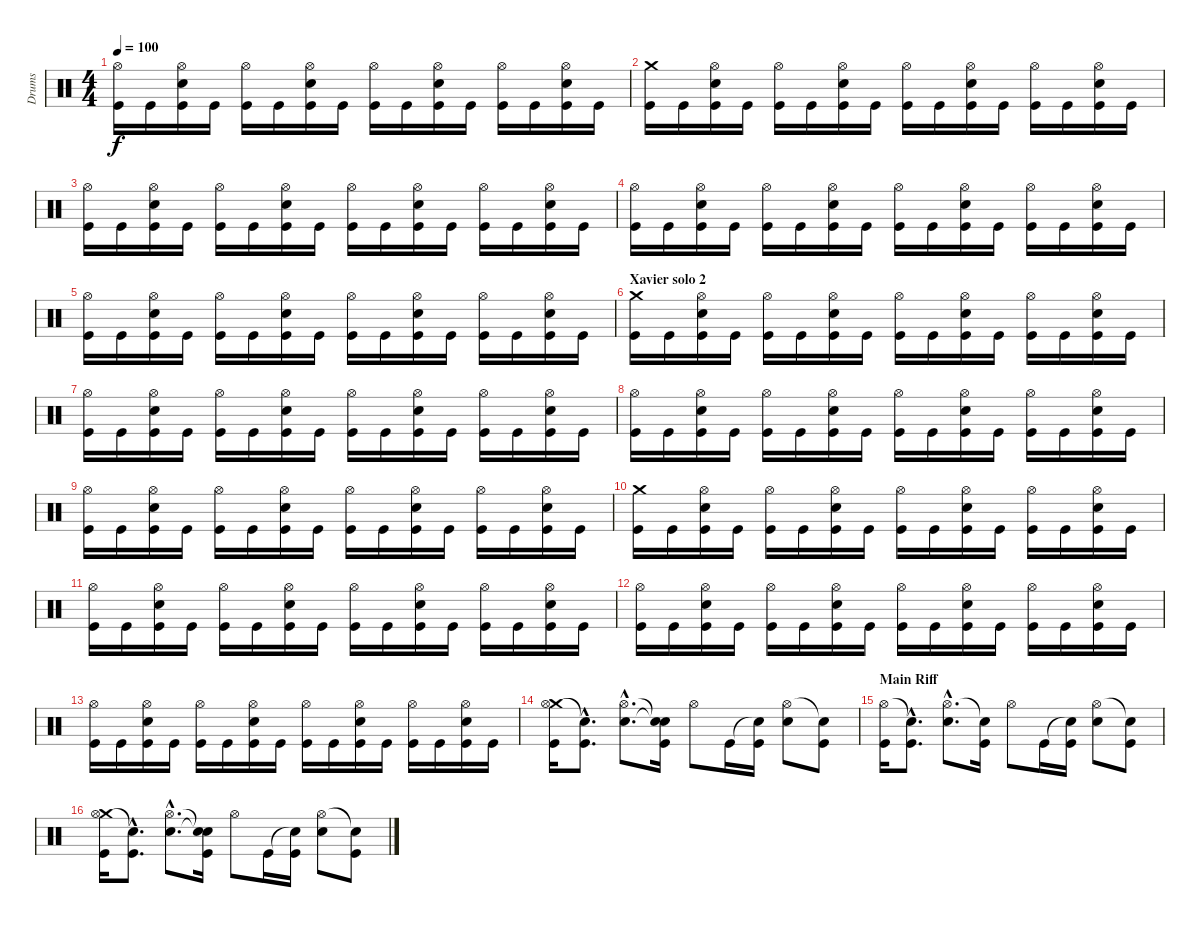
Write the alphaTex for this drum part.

\track ("Drums" "Drums") {instrument percussion}
\staff {score}
\articulation defaults
\ts (4 4)
\tempo 100
\clef neutral
\ks c
("Hi-Hat (open)" "Kick (hit)").16{dy f} "Kick (hit)".16 ("Hi-Hat (open)" "Electric Snare (hit)" "Kick (hit)").16 "Kick (hit)".16 ("Hi-Hat (open)" "Kick (hit)").16 "Kick (hit)".16 ("Hi-Hat (open)" "Electric Snare (hit)" "Kick (hit)").16 "Kick (hit)".16 ("Hi-Hat (open)" "Kick (hit)").16 "Kick (hit)".16 ("Hi-Hat (open)" "Electric Snare (hit)" "Kick (hit)").16 "Kick (hit)".16 ("Hi-Hat (open)" "Kick (hit)").16 "Kick (hit)".16 ("Hi-Hat (open)" "Electric Snare (hit)" "Kick (hit)").16 "Kick (hit)".16 |
("Crash medium (hit)" "Kick (hit)").16 "Kick (hit)".16 ("Hi-Hat (open)" "Electric Snare (hit)" "Kick (hit)").16 "Kick (hit)".16 ("Hi-Hat (open)" "Kick (hit)").16 "Kick (hit)".16 ("Hi-Hat (open)" "Electric Snare (hit)" "Kick (hit)").16 "Kick (hit)".16 ("Hi-Hat (open)" "Kick (hit)").16 "Kick (hit)".16 ("Hi-Hat (open)" "Electric Snare (hit)" "Kick (hit)").16 "Kick (hit)".16 ("Hi-Hat (open)" "Kick (hit)").16 "Kick (hit)".16 ("Hi-Hat (open)" "Electric Snare (hit)" "Kick (hit)").16 "Kick (hit)".16 |
("Hi-Hat (open)" "Kick (hit)").16 "Kick (hit)".16 ("Hi-Hat (open)" "Electric Snare (hit)" "Kick (hit)").16 "Kick (hit)".16 ("Hi-Hat (open)" "Kick (hit)").16 "Kick (hit)".16 ("Hi-Hat (open)" "Electric Snare (hit)" "Kick (hit)").16 "Kick (hit)".16 ("Hi-Hat (open)" "Kick (hit)").16 "Kick (hit)".16 ("Hi-Hat (open)" "Electric Snare (hit)" "Kick (hit)").16 "Kick (hit)".16 ("Hi-Hat (open)" "Kick (hit)").16 "Kick (hit)".16 ("Hi-Hat (open)" "Electric Snare (hit)" "Kick (hit)").16 "Kick (hit)".16 |
("Hi-Hat (open)" "Kick (hit)").16 "Kick (hit)".16 ("Hi-Hat (open)" "Electric Snare (hit)" "Kick (hit)").16 "Kick (hit)".16 ("Hi-Hat (open)" "Kick (hit)").16 "Kick (hit)".16 ("Hi-Hat (open)" "Electric Snare (hit)" "Kick (hit)").16 "Kick (hit)".16 ("Hi-Hat (open)" "Kick (hit)").16 "Kick (hit)".16 ("Hi-Hat (open)" "Electric Snare (hit)" "Kick (hit)").16 "Kick (hit)".16 ("Hi-Hat (open)" "Kick (hit)").16 "Kick (hit)".16 ("Hi-Hat (open)" "Electric Snare (hit)" "Kick (hit)").16 "Kick (hit)".16 |
("Hi-Hat (open)" "Kick (hit)").16 "Kick (hit)".16 ("Hi-Hat (open)" "Electric Snare (hit)" "Kick (hit)").16 "Kick (hit)".16 ("Hi-Hat (open)" "Kick (hit)").16 "Kick (hit)".16 ("Hi-Hat (open)" "Electric Snare (hit)" "Kick (hit)").16 "Kick (hit)".16 ("Hi-Hat (open)" "Kick (hit)").16 "Kick (hit)".16 ("Hi-Hat (open)" "Electric Snare (hit)" "Kick (hit)").16 "Kick (hit)".16 ("Hi-Hat (open)" "Kick (hit)").16 "Kick (hit)".16 ("Hi-Hat (open)" "Electric Snare (hit)" "Kick (hit)").16 "Kick (hit)".16 |
\section ("" "Xavier solo 2")
("Crash medium (hit)" "Kick (hit)").16 "Kick (hit)".16 ("Hi-Hat (open)" "Electric Snare (hit)" "Kick (hit)").16 "Kick (hit)".16 ("Hi-Hat (open)" "Kick (hit)").16 "Kick (hit)".16 ("Hi-Hat (open)" "Electric Snare (hit)" "Kick (hit)").16 "Kick (hit)".16 ("Hi-Hat (open)" "Kick (hit)").16 "Kick (hit)".16 ("Hi-Hat (open)" "Electric Snare (hit)" "Kick (hit)").16 "Kick (hit)".16 ("Hi-Hat (open)" "Kick (hit)").16 "Kick (hit)".16 ("Hi-Hat (open)" "Electric Snare (hit)" "Kick (hit)").16 "Kick (hit)".16 |
("Hi-Hat (open)" "Kick (hit)").16 "Kick (hit)".16 ("Hi-Hat (open)" "Electric Snare (hit)" "Kick (hit)").16 "Kick (hit)".16 ("Hi-Hat (open)" "Kick (hit)").16 "Kick (hit)".16 ("Hi-Hat (open)" "Electric Snare (hit)" "Kick (hit)").16 "Kick (hit)".16 ("Hi-Hat (open)" "Kick (hit)").16 "Kick (hit)".16 ("Hi-Hat (open)" "Electric Snare (hit)" "Kick (hit)").16 "Kick (hit)".16 ("Hi-Hat (open)" "Kick (hit)").16 "Kick (hit)".16 ("Hi-Hat (open)" "Electric Snare (hit)" "Kick (hit)").16 "Kick (hit)".16 |
("Hi-Hat (open)" "Kick (hit)").16 "Kick (hit)".16 ("Hi-Hat (open)" "Electric Snare (hit)" "Kick (hit)").16 "Kick (hit)".16 ("Hi-Hat (open)" "Kick (hit)").16 "Kick (hit)".16 ("Hi-Hat (open)" "Electric Snare (hit)" "Kick (hit)").16 "Kick (hit)".16 ("Hi-Hat (open)" "Kick (hit)").16 "Kick (hit)".16 ("Hi-Hat (open)" "Electric Snare (hit)" "Kick (hit)").16 "Kick (hit)".16 ("Hi-Hat (open)" "Kick (hit)").16 "Kick (hit)".16 ("Hi-Hat (open)" "Electric Snare (hit)" "Kick (hit)").16 "Kick (hit)".16 |
("Hi-Hat (open)" "Kick (hit)").16 "Kick (hit)".16 ("Hi-Hat (open)" "Electric Snare (hit)" "Kick (hit)").16 "Kick (hit)".16 ("Hi-Hat (open)" "Kick (hit)").16 "Kick (hit)".16 ("Hi-Hat (open)" "Electric Snare (hit)" "Kick (hit)").16 "Kick (hit)".16 ("Hi-Hat (open)" "Kick (hit)").16 "Kick (hit)".16 ("Hi-Hat (open)" "Electric Snare (hit)" "Kick (hit)").16 "Kick (hit)".16 ("Hi-Hat (open)" "Kick (hit)").16 "Kick (hit)".16 ("Hi-Hat (open)" "Electric Snare (hit)" "Kick (hit)").16 "Kick (hit)".16 |
("Crash medium (hit)" "Kick (hit)").16 "Kick (hit)".16 ("Hi-Hat (open)" "Electric Snare (hit)" "Kick (hit)").16 "Kick (hit)".16 ("Hi-Hat (open)" "Kick (hit)").16 "Kick (hit)".16 ("Hi-Hat (open)" "Electric Snare (hit)" "Kick (hit)").16 "Kick (hit)".16 ("Hi-Hat (open)" "Kick (hit)").16 "Kick (hit)".16 ("Hi-Hat (open)" "Electric Snare (hit)" "Kick (hit)").16 "Kick (hit)".16 ("Hi-Hat (open)" "Kick (hit)").16 "Kick (hit)".16 ("Hi-Hat (open)" "Electric Snare (hit)" "Kick (hit)").16 "Kick (hit)".16 |
("Hi-Hat (open)" "Kick (hit)").16 "Kick (hit)".16 ("Hi-Hat (open)" "Electric Snare (hit)" "Kick (hit)").16 "Kick (hit)".16 ("Hi-Hat (open)" "Kick (hit)").16 "Kick (hit)".16 ("Hi-Hat (open)" "Electric Snare (hit)" "Kick (hit)").16 "Kick (hit)".16 ("Hi-Hat (open)" "Kick (hit)").16 "Kick (hit)".16 ("Hi-Hat (open)" "Electric Snare (hit)" "Kick (hit)").16 "Kick (hit)".16 ("Hi-Hat (open)" "Kick (hit)").16 "Kick (hit)".16 ("Hi-Hat (open)" "Electric Snare (hit)" "Kick (hit)").16 "Kick (hit)".16 |
("Hi-Hat (open)" "Kick (hit)").16 "Kick (hit)".16 ("Hi-Hat (open)" "Electric Snare (hit)" "Kick (hit)").16 "Kick (hit)".16 ("Hi-Hat (open)" "Kick (hit)").16 "Kick (hit)".16 ("Hi-Hat (open)" "Electric Snare (hit)" "Kick (hit)").16 "Kick (hit)".16 ("Hi-Hat (open)" "Kick (hit)").16 "Kick (hit)".16 ("Hi-Hat (open)" "Electric Snare (hit)" "Kick (hit)").16 "Kick (hit)".16 ("Hi-Hat (open)" "Kick (hit)").16 "Kick (hit)".16 ("Hi-Hat (open)" "Electric Snare (hit)" "Kick (hit)").16 "Kick (hit)".16 |
("Hi-Hat (open)" "Kick (hit)").16 "Kick (hit)".16 ("Hi-Hat (open)" "Electric Snare (hit)" "Kick (hit)").16 "Kick (hit)".16 ("Hi-Hat (open)" "Kick (hit)").16 "Kick (hit)".16 ("Hi-Hat (open)" "Electric Snare (hit)" "Kick (hit)").16 "Kick (hit)".16 ("Hi-Hat (open)" "Kick (hit)").16 "Kick (hit)".16 ("Hi-Hat (open)" "Electric Snare (hit)" "Kick (hit)").16 "Kick (hit)".16 ("Hi-Hat (open)" "Kick (hit)").16 "Kick (hit)".16 ("Hi-Hat (open)" "Electric Snare (hit)" "Kick (hit)").16 "Kick (hit)".16 |
\section ("" "")
("Crash medium (hit)" "Hi-Hat (open)" "Kick (hit)").16 ("Snare (hit)"{hac t} "Kick (hit)"{hac}).8{d} ("Hi-Hat (open)"{hac} "Electric Snare (hit)"{hac}).8{d} ("Snare (hit)"{t} "Snare (hit)"{t} "Kick (hit)").16 "Hi-Hat (open)".8 "Kick (hit)".16 ("Snare (hit)"{t} "Kick (hit)").16 ("Hi-Hat (open)" "Electric Snare (hit)").8 ("Snare (hit)"{t} "Kick (hit)").8 |
\section ("" "Main Riff")
("Hi-Hat (open)" "Kick (hit)").16 ("Snare (hit)"{hac t} "Kick (hit)"{hac}).8{d} ("Hi-Hat (open)"{hac} "Electric Snare (hit)"{hac}).8{d} ("Snare (hit)"{t} "Kick (hit)").16 "Hi-Hat (open)".8 "Kick (hit)".16 ("Snare (hit)"{t} "Kick (hit)").16 ("Hi-Hat (open)" "Electric Snare (hit)").8 ("Snare (hit)"{t} "Kick (hit)").8 |
("Crash medium (hit)" "Hi-Hat (open)" "Kick (hit)").16 ("Snare (hit)"{hac t} "Kick (hit)"{hac}).8{d} ("Hi-Hat (open)"{hac} "Electric Snare (hit)"{hac}).8{d} ("Snare (hit)"{t} "Snare (hit)"{t} "Kick (hit)").16 "Hi-Hat (open)".8 "Kick (hit)".16 ("Snare (hit)"{t} "Kick (hit)").16 ("Hi-Hat (open)" "Electric Snare (hit)").8 ("Snare (hit)"{t} "Kick (hit)").8
